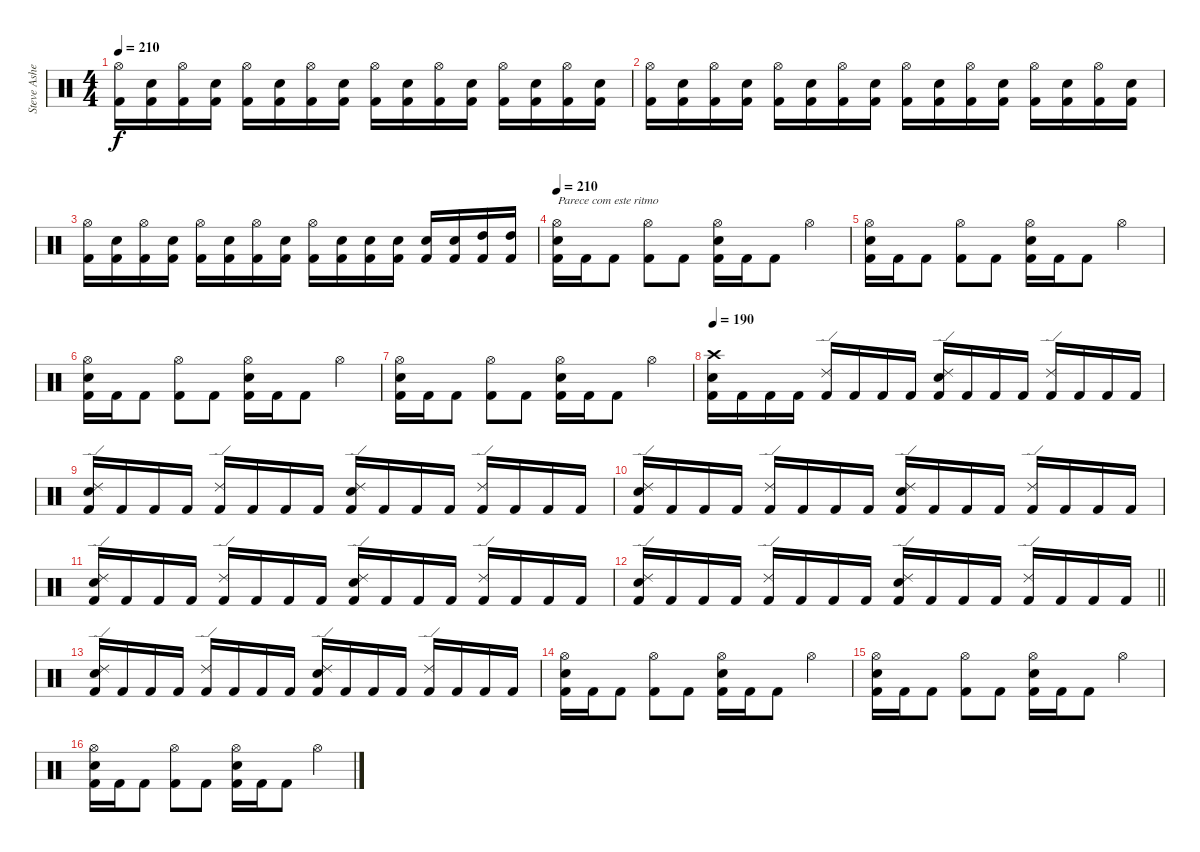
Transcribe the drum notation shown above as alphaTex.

\track ("Steve Asheim" "Steve Ashe") {instrument percussion}
\staff {score}
\articulation defaults
\ts (4 4)
\tempo 210
\clef neutral
\ks c
("Hi-Hat (open)" "Kick (hit) 2").16{dy f} ("Electric Snare (hit)" "Kick (hit) 2").16 ("Hi-Hat (open)" "Kick (hit) 2").16 ("Electric Snare (hit)" "Kick (hit) 2").16 ("Hi-Hat (open)" "Kick (hit) 2").16 ("Electric Snare (hit)" "Kick (hit) 2").16 ("Hi-Hat (open)" "Kick (hit) 2").16 ("Electric Snare (hit)" "Kick (hit) 2").16 ("Hi-Hat (open)" "Kick (hit) 2").16 ("Electric Snare (hit)" "Kick (hit) 2").16 ("Hi-Hat (open)" "Kick (hit) 2").16 ("Electric Snare (hit)" "Kick (hit) 2").16 ("Hi-Hat (open)" "Kick (hit) 2").16 ("Electric Snare (hit)" "Kick (hit) 2").16 ("Hi-Hat (open)" "Kick (hit) 2").16 ("Electric Snare (hit)" "Kick (hit) 2").16 |
("Hi-Hat (open)" "Kick (hit) 2").16 ("Electric Snare (hit)" "Kick (hit) 2").16 ("Hi-Hat (open)" "Kick (hit) 2").16 ("Electric Snare (hit)" "Kick (hit) 2").16 ("Hi-Hat (open)" "Kick (hit) 2").16 ("Electric Snare (hit)" "Kick (hit) 2").16 ("Hi-Hat (open)" "Kick (hit) 2").16 ("Electric Snare (hit)" "Kick (hit) 2").16 ("Hi-Hat (open)" "Kick (hit) 2").16 ("Electric Snare (hit)" "Kick (hit) 2").16 ("Hi-Hat (open)" "Kick (hit) 2").16 ("Electric Snare (hit)" "Kick (hit) 2").16 ("Hi-Hat (open)" "Kick (hit) 2").16 ("Electric Snare (hit)" "Kick (hit) 2").16 ("Hi-Hat (open)" "Kick (hit) 2").16 ("Electric Snare (hit)" "Kick (hit) 2").16 |
("Hi-Hat (open)" "Kick (hit) 2").16 ("Electric Snare (hit)" "Kick (hit) 2").16 ("Hi-Hat (open)" "Kick (hit) 2").16 ("Electric Snare (hit)" "Kick (hit) 2").16 ("Hi-Hat (open)" "Kick (hit) 2").16 ("Electric Snare (hit)" "Kick (hit) 2").16 ("Hi-Hat (open)" "Kick (hit) 2").16 ("Electric Snare (hit)" "Kick (hit) 2").16 ("Hi-Hat (open)" "Kick (hit) 2").16 ("Electric Snare (hit)" "Kick (hit) 2").16 ("Electric Snare (hit)" "Kick (hit) 2").16 ("Electric Snare (hit)" "Kick (hit) 2").16 ("Electric Snare (hit)" "Kick (hit) 2").16 ("Electric Snare (hit)" "Kick (hit) 2").16 ("High Tom (hit)" "Kick (hit) 2").16 ("High Tom (hit)" "Kick (hit) 2").16 |
\tempo 210
("Hi-Hat (open)" "Electric Snare (hit)" "Kick (hit) 2").16{txt "Parece com este ritmo"} "Kick (hit) 2".16 "Kick (hit) 2".8 ("Hi-Hat (open)" "Kick (hit) 2").8 "Kick (hit) 2".8 ("Hi-Hat (open)" "Electric Snare (hit)" "Kick (hit) 2").16 "Kick (hit) 2".16 "Kick (hit) 2".8 "Hi-Hat (open)".4 |
("Hi-Hat (open)" "Electric Snare (hit)" "Kick (hit) 2").16 "Kick (hit) 2".16 "Kick (hit) 2".8 ("Hi-Hat (open)" "Kick (hit) 2").8 "Kick (hit) 2".8 ("Hi-Hat (open)" "Electric Snare (hit)" "Kick (hit) 2").16 "Kick (hit) 2".16 "Kick (hit) 2".8 "Hi-Hat (open)".4 |
("Hi-Hat (open)" "Electric Snare (hit)" "Kick (hit) 2").16 "Kick (hit) 2".16 "Kick (hit) 2".8 ("Hi-Hat (open)" "Kick (hit) 2").8 "Kick (hit) 2".8 ("Hi-Hat (open)" "Electric Snare (hit)" "Kick (hit) 2").16 "Kick (hit) 2".16 "Kick (hit) 2".8 "Hi-Hat (open)".4 |
("Hi-Hat (open)" "Electric Snare (hit)" "Kick (hit) 2").16 "Kick (hit) 2".16 "Kick (hit) 2".8 ("Hi-Hat (open)" "Kick (hit) 2").8 "Kick (hit) 2".8 ("Hi-Hat (open)" "Electric Snare (hit)" "Kick (hit) 2").16 "Kick (hit) 2".16 "Kick (hit) 2".8 "Hi-Hat (open)".4 |
\tempo 190
("Crash high (hit)" "Electric Snare (hit)" "Kick (hit) 2").16 "Kick (hit) 2".16 "Kick (hit) 2".16 "Kick (hit) 2".16 ("Ride (edge) 2" "Kick (hit) 2").16 "Kick (hit) 2".16 "Kick (hit) 2".16 "Kick (hit) 2".16 ("Ride (edge) 2" "Electric Snare (hit)" "Kick (hit) 2").16 "Kick (hit) 2".16 "Kick (hit) 2".16 "Kick (hit) 2".16 ("Ride (edge) 2" "Kick (hit) 2").16 "Kick (hit) 2".16 "Kick (hit) 2".16 "Kick (hit) 2".16 |
("Ride (edge) 2" "Electric Snare (hit)" "Kick (hit) 2").16 "Kick (hit) 2".16 "Kick (hit) 2".16 "Kick (hit) 2".16 ("Ride (edge) 2" "Kick (hit) 2").16 "Kick (hit) 2".16 "Kick (hit) 2".16 "Kick (hit) 2".16 ("Ride (edge) 2" "Electric Snare (hit)" "Kick (hit) 2").16 "Kick (hit) 2".16 "Kick (hit) 2".16 "Kick (hit) 2".16 ("Ride (edge) 2" "Kick (hit) 2").16 "Kick (hit) 2".16 "Kick (hit) 2".16 "Kick (hit) 2".16 |
("Ride (edge) 2" "Electric Snare (hit)" "Kick (hit) 2").16 "Kick (hit) 2".16 "Kick (hit) 2".16 "Kick (hit) 2".16 ("Ride (edge) 2" "Kick (hit) 2").16 "Kick (hit) 2".16 "Kick (hit) 2".16 "Kick (hit) 2".16 ("Ride (edge) 2" "Electric Snare (hit)" "Kick (hit) 2").16 "Kick (hit) 2".16 "Kick (hit) 2".16 "Kick (hit) 2".16 ("Ride (edge) 2" "Kick (hit) 2").16 "Kick (hit) 2".16 "Kick (hit) 2".16 "Kick (hit) 2".16 |
("Ride (edge) 2" "Electric Snare (hit)" "Kick (hit) 2").16 "Kick (hit) 2".16 "Kick (hit) 2".16 "Kick (hit) 2".16 ("Ride (edge) 2" "Kick (hit) 2").16 "Kick (hit) 2".16 "Kick (hit) 2".16 "Kick (hit) 2".16 ("Ride (edge) 2" "Electric Snare (hit)" "Kick (hit) 2").16 "Kick (hit) 2".16 "Kick (hit) 2".16 "Kick (hit) 2".16 ("Ride (edge) 2" "Kick (hit) 2").16 "Kick (hit) 2".16 "Kick (hit) 2".16 "Kick (hit) 2".16 |
\barLineRight lightlight
("Ride (edge) 2" "Electric Snare (hit)" "Kick (hit) 2").16 "Kick (hit) 2".16 "Kick (hit) 2".16 "Kick (hit) 2".16 ("Ride (edge) 2" "Kick (hit) 2").16 "Kick (hit) 2".16 "Kick (hit) 2".16 "Kick (hit) 2".16 ("Ride (edge) 2" "Electric Snare (hit)" "Kick (hit) 2").16 "Kick (hit) 2".16 "Kick (hit) 2".16 "Kick (hit) 2".16 ("Ride (edge) 2" "Kick (hit) 2").16 "Kick (hit) 2".16 "Kick (hit) 2".16 "Kick (hit) 2".16 |
("Ride (edge) 2" "Electric Snare (hit)" "Kick (hit) 2").16 "Kick (hit) 2".16 "Kick (hit) 2".16 "Kick (hit) 2".16 ("Ride (edge) 2" "Kick (hit) 2").16 "Kick (hit) 2".16 "Kick (hit) 2".16 "Kick (hit) 2".16 ("Ride (edge) 2" "Electric Snare (hit)" "Kick (hit) 2").16 "Kick (hit) 2".16 "Kick (hit) 2".16 "Kick (hit) 2".16 ("Ride (edge) 2" "Kick (hit) 2").16 "Kick (hit) 2".16 "Kick (hit) 2".16 "Kick (hit) 2".16 |
("Hi-Hat (open)" "Electric Snare (hit)" "Kick (hit) 2").16 "Kick (hit) 2".16 "Kick (hit) 2".8 ("Hi-Hat (open)" "Kick (hit) 2").8 "Kick (hit) 2".8 ("Hi-Hat (open)" "Electric Snare (hit)" "Kick (hit) 2").16 "Kick (hit) 2".16 "Kick (hit) 2".8 "Hi-Hat (open)".4 |
("Hi-Hat (open)" "Electric Snare (hit)" "Kick (hit) 2").16 "Kick (hit) 2".16 "Kick (hit) 2".8 ("Hi-Hat (open)" "Kick (hit) 2").8 "Kick (hit) 2".8 ("Hi-Hat (open)" "Electric Snare (hit)" "Kick (hit) 2").16 "Kick (hit) 2".16 "Kick (hit) 2".8 "Hi-Hat (open)".4 |
("Hi-Hat (open)" "Electric Snare (hit)" "Kick (hit) 2").16 "Kick (hit) 2".16 "Kick (hit) 2".8 ("Hi-Hat (open)" "Kick (hit) 2").8 "Kick (hit) 2".8 ("Hi-Hat (open)" "Electric Snare (hit)" "Kick (hit) 2").16 "Kick (hit) 2".16 "Kick (hit) 2".8 "Hi-Hat (open)".4
